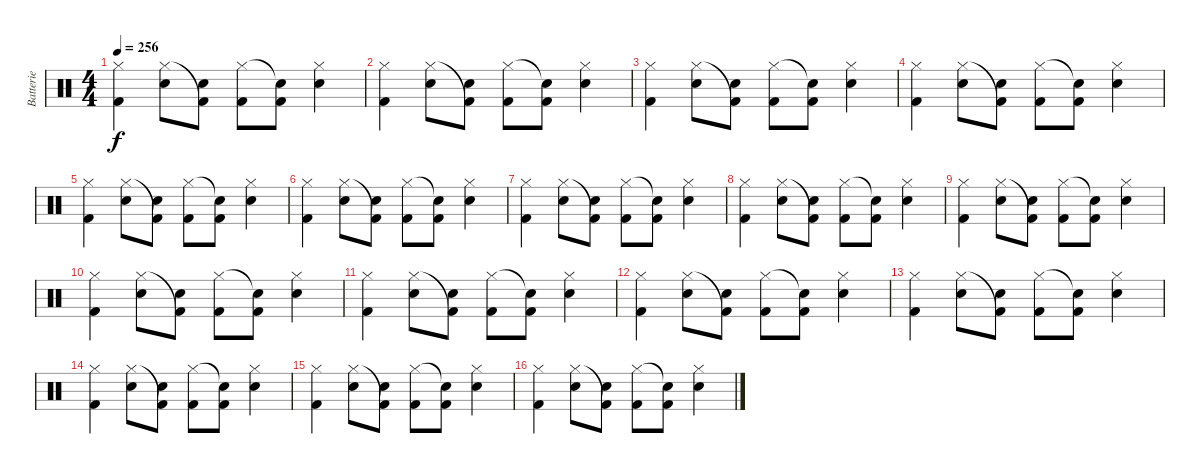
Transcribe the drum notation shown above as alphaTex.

\track ("Batterie" "Batterie") {instrument percussion}
\staff {score}
\articulation defaults
\ts (4 4)
\tempo 256
\clef neutral
\ks c
("Hi-Hat (closed)" "Kick (hit) 2").4{dy f} ("Hi-Hat (closed)" "Snare (hit) 2").8 ("Kick (hit) 2"{t} "Snare (hit) 2").8 ("Hi-Hat (closed)" "Kick (hit) 2").8 ("Snare (hit)"{t} "Kick (hit) 2").8 ("Hi-Hat (closed)" "Snare (hit) 2").4 |
("Hi-Hat (closed)" "Kick (hit) 2").4 ("Hi-Hat (closed)" "Snare (hit) 2").8 ("Kick (hit) 2"{t} "Snare (hit) 2").8 ("Hi-Hat (closed)" "Kick (hit) 2").8 ("Snare (hit)"{t} "Kick (hit) 2").8 ("Hi-Hat (closed)" "Snare (hit) 2").4 |
("Hi-Hat (closed)" "Kick (hit) 2").4 ("Hi-Hat (closed)" "Snare (hit) 2").8 ("Kick (hit) 2"{t} "Snare (hit) 2").8 ("Hi-Hat (closed)" "Kick (hit) 2").8 ("Snare (hit)"{t} "Kick (hit) 2").8 ("Hi-Hat (closed)" "Snare (hit) 2").4 |
("Hi-Hat (closed)" "Kick (hit) 2").4 ("Hi-Hat (closed)" "Snare (hit) 2").8 ("Kick (hit) 2"{t} "Snare (hit) 2").8 ("Hi-Hat (closed)" "Kick (hit) 2").8 ("Snare (hit)"{t} "Kick (hit) 2").8 ("Hi-Hat (closed)" "Snare (hit) 2").4 |
("Hi-Hat (closed)" "Kick (hit) 2").4 ("Hi-Hat (closed)" "Snare (hit) 2").8 ("Kick (hit) 2"{t} "Snare (hit) 2").8 ("Hi-Hat (closed)" "Kick (hit) 2").8 ("Snare (hit)"{t} "Kick (hit) 2").8 ("Hi-Hat (closed)" "Snare (hit) 2").4 |
("Hi-Hat (closed)" "Kick (hit) 2").4 ("Hi-Hat (closed)" "Snare (hit) 2").8 ("Kick (hit) 2"{t} "Snare (hit) 2").8 ("Hi-Hat (closed)" "Kick (hit) 2").8 ("Snare (hit)"{t} "Kick (hit) 2").8 ("Hi-Hat (closed)" "Snare (hit) 2").4 |
("Hi-Hat (closed)" "Kick (hit) 2").4 ("Hi-Hat (closed)" "Snare (hit) 2").8 ("Kick (hit) 2"{t} "Snare (hit) 2").8 ("Hi-Hat (closed)" "Kick (hit) 2").8 ("Snare (hit)"{t} "Kick (hit) 2").8 ("Hi-Hat (closed)" "Snare (hit) 2").4 |
("Hi-Hat (closed)" "Kick (hit) 2").4 ("Hi-Hat (closed)" "Snare (hit) 2").8 ("Kick (hit) 2"{t} "Snare (hit) 2").8 ("Hi-Hat (closed)" "Kick (hit) 2").8 ("Snare (hit)"{t} "Kick (hit) 2").8 ("Hi-Hat (closed)" "Snare (hit) 2").4 |
("Hi-Hat (closed)" "Kick (hit) 2").4 ("Hi-Hat (closed)" "Snare (hit) 2").8 ("Kick (hit) 2"{t} "Snare (hit) 2").8 ("Hi-Hat (closed)" "Kick (hit) 2").8 ("Snare (hit)"{t} "Kick (hit) 2").8 ("Hi-Hat (closed)" "Snare (hit) 2").4 |
("Hi-Hat (closed)" "Kick (hit) 2").4 ("Hi-Hat (closed)" "Snare (hit) 2").8 ("Kick (hit) 2"{t} "Snare (hit) 2").8 ("Hi-Hat (closed)" "Kick (hit) 2").8 ("Snare (hit)"{t} "Kick (hit) 2").8 ("Hi-Hat (closed)" "Snare (hit) 2").4 |
("Hi-Hat (closed)" "Kick (hit) 2").4 ("Hi-Hat (closed)" "Snare (hit) 2").8 ("Kick (hit) 2"{t} "Snare (hit) 2").8 ("Hi-Hat (closed)" "Kick (hit) 2").8 ("Snare (hit)"{t} "Kick (hit) 2").8 ("Hi-Hat (closed)" "Snare (hit) 2").4 |
("Hi-Hat (closed)" "Kick (hit) 2").4 ("Hi-Hat (closed)" "Snare (hit) 2").8 ("Kick (hit) 2"{t} "Snare (hit) 2").8 ("Hi-Hat (closed)" "Kick (hit) 2").8 ("Snare (hit)"{t} "Kick (hit) 2").8 ("Hi-Hat (closed)" "Snare (hit) 2").4 |
("Hi-Hat (closed)" "Kick (hit) 2").4 ("Hi-Hat (closed)" "Snare (hit) 2").8 ("Kick (hit) 2"{t} "Snare (hit) 2").8 ("Hi-Hat (closed)" "Kick (hit) 2").8 ("Snare (hit)"{t} "Kick (hit) 2").8 ("Hi-Hat (closed)" "Snare (hit) 2").4 |
("Hi-Hat (closed)" "Kick (hit) 2").4 ("Hi-Hat (closed)" "Snare (hit) 2").8 ("Kick (hit) 2"{t} "Snare (hit) 2").8 ("Hi-Hat (closed)" "Kick (hit) 2").8 ("Snare (hit)"{t} "Kick (hit) 2").8 ("Hi-Hat (closed)" "Snare (hit) 2").4 |
("Hi-Hat (closed)" "Kick (hit) 2").4 ("Hi-Hat (closed)" "Snare (hit) 2").8 ("Kick (hit) 2"{t} "Snare (hit) 2").8 ("Hi-Hat (closed)" "Kick (hit) 2").8 ("Snare (hit)"{t} "Kick (hit) 2").8 ("Hi-Hat (closed)" "Snare (hit) 2").4 |
("Hi-Hat (closed)" "Kick (hit) 2").4 ("Hi-Hat (closed)" "Snare (hit) 2").8 ("Kick (hit) 2"{t} "Snare (hit) 2").8 ("Hi-Hat (closed)" "Kick (hit) 2").8 ("Snare (hit)"{t} "Kick (hit) 2").8 ("Hi-Hat (closed)" "Snare (hit) 2").4
